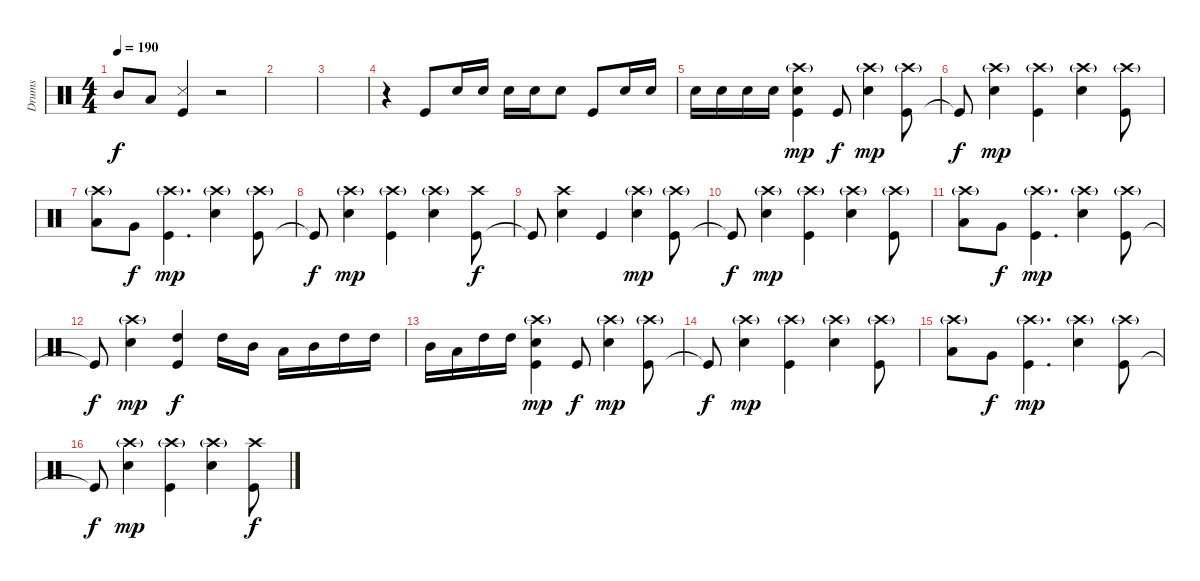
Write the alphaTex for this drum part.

\track ("Drums" "Drums") {instrument percussion}
\staff {score}
\articulation defaults
\ts (4 4)
\tempo 190
\clef neutral
\ks c "Mid Tom (hit)".8{dy f} "Low Tom (hit)".8
("Kick (hit)" "Snare (side stick) 3").4 r.2 |
|
|
r.4 "Kick (hit)".8 "Electric Snare (hit)".16 "Electric Snare (hit)".16 "Electric Snare (hit)".16 "Electric Snare (hit)".16 "Electric Snare (hit)".8 "Kick (hit)".8 "Electric Snare (hit)".16 "Electric Snare (hit)".16 |
"Electric Snare (hit)".16 "Electric Snare (hit)".16 "Electric Snare (hit)".16 "Electric Snare (hit)".16 ("Crash high (hit)"{g} "Kick (hit)" "Electric Snare (hit)").4{dy mp} "Kick (hit)".8{dy f} ("Electric Snare (hit)" "Crash high (hit)"{g}).4{dy mp} ("Kick (hit)" "Crash high (hit)"{g}).8 |
"Kick (hit)"{t}.8{dy f} ("Electric Snare (hit)" "Crash high (hit)"{g}).4{dy mp} ("Kick (hit)" "Crash high (hit)"{g}).4 ("Electric Snare (hit)" "Crash high (hit)"{g}).4 ("Kick (hit)" "Crash high (hit)"{g}).8 |
("Low Tom (hit)" "Crash high (hit)"{g}).8 "Very Low Tom (hit)".8{dy f} ("Kick (hit)" "Crash high (hit)"{g}).4{d dy mp} ("Electric Snare (hit)" "Crash high (hit)"{g}).4 ("Kick (hit)" "Crash high (hit)"{g}).8 |
"Kick (hit)"{t}.8{dy f} ("Electric Snare (hit)" "Crash high (hit)"{g}).4{dy mp} ("Kick (hit)" "Crash high (hit)"{g}).4 ("Electric Snare (hit)" "Crash high (hit)"{g}).4 ("Kick (hit)" "Crash high (hit)").8{dy f} |
"Kick (hit)"{t}.8 ("Electric Snare (hit)" "Crash high (hit)").4 "Kick (hit)".4 ("Electric Snare (hit)" "Crash high (hit)"{g}).4{dy mp} ("Kick (hit)" "Crash high (hit)"{g}).8 |
"Kick (hit)"{t}.8{dy f} ("Electric Snare (hit)" "Crash high (hit)"{g}).4{dy mp} ("Kick (hit)" "Crash high (hit)"{g}).4 ("Electric Snare (hit)" "Crash high (hit)"{g}).4 ("Kick (hit)" "Crash high (hit)"{g}).8 |
("Low Tom (hit)" "Crash high (hit)"{g}).8 "Very Low Tom (hit)".8{dy f} ("Kick (hit)" "Crash high (hit)"{g}).4{d dy mp} ("Electric Snare (hit)" "Crash high (hit)"{g}).4 ("Kick (hit)" "Crash high (hit)"{g}).8 |
"Kick (hit)"{t}.8{dy f} ("Electric Snare (hit)" "Crash high (hit)"{g}).4{dy mp} ("High Tom (hit)" "Kick (hit)").4{dy f} "High Tom (hit)".16 "Mid Tom (hit)".16 "Low Tom (hit)".16 "Mid Tom (hit)".16 "High Tom (hit)".16 "High Tom (hit)".16 |
"Mid Tom (hit)".16 "Low Tom (hit)".16 "High Tom (hit)".16 "High Tom (hit)".16 ("Crash high (hit)"{g} "Kick (hit)" "Electric Snare (hit)").4{dy mp} "Kick (hit)".8{dy f} ("Electric Snare (hit)" "Crash high (hit)"{g}).4{dy mp} ("Kick (hit)" "Crash high (hit)"{g}).8 |
"Kick (hit)"{t}.8{dy f} ("Electric Snare (hit)" "Crash high (hit)"{g}).4{dy mp} ("Kick (hit)" "Crash high (hit)"{g}).4 ("Electric Snare (hit)" "Crash high (hit)"{g}).4 ("Kick (hit)" "Crash high (hit)"{g}).8 |
("Low Tom (hit)" "Crash high (hit)"{g}).8 "Very Low Tom (hit)".8{dy f} ("Kick (hit)" "Crash high (hit)"{g}).4{d dy mp} ("Electric Snare (hit)" "Crash high (hit)"{g}).4 ("Kick (hit)" "Crash high (hit)"{g}).8 |
"Kick (hit)"{t}.8{dy f} ("Electric Snare (hit)" "Crash high (hit)"{g}).4{dy mp} ("Kick (hit)" "Crash high (hit)"{g}).4 ("Electric Snare (hit)" "Crash high (hit)"{g}).4 ("Kick (hit)" "Crash high (hit)").8{dy f}
